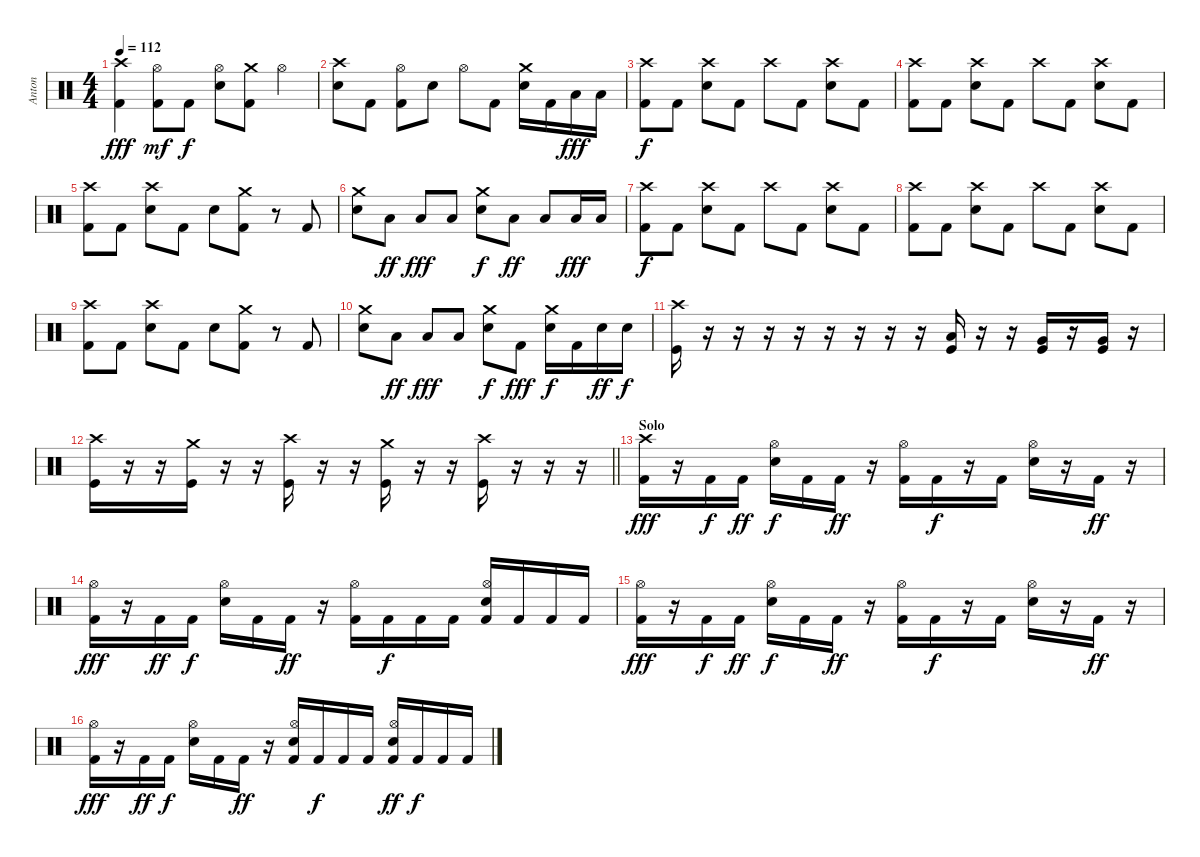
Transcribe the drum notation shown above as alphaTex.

\track ("Anton" "Anton") {instrument percussion}
\staff
\articulation defaults
\ts (4 4)
\tempo 112
\clef neutral
\ks c
("Crash high (hit)" "Kick (hit) 2").4{dy fff} ("Hi-Hat (open)" "Kick (hit) 2").8{dy mf} "Kick (hit) 2".8{dy f} ("Hi-Hat (open)" "Electric Snare (hit)").8 ("Crash medium (hit)" "Kick (hit) 2").8 "Hi-Hat (open)".4 |
("Crash high (hit)" "Electric Snare (hit)").8 "Kick (hit) 2".8 ("Hi-Hat (open)" "Kick (hit) 2").8 "Electric Snare (hit)".8 "Hi-Hat (open)".8 "Kick (hit) 2".8 ("Crash medium (hit)" "Electric Snare (hit)").16 "Kick (hit) 2".16 "Low Tom (hit)".16{dy fff} "Low Tom (hit)".16 |
("Crash high (hit)" "Kick (hit) 2").8{dy f} "Kick (hit) 2".8 ("Crash high (hit)" "Electric Snare (hit)").8 "Kick (hit) 2".8 "Crash high (hit)".8 "Kick (hit) 2".8 ("Crash high (hit)" "Electric Snare (hit)").8 "Kick (hit) 2".8 |
("Crash high (hit)" "Kick (hit) 2").8 "Kick (hit) 2".8 ("Crash high (hit)" "Electric Snare (hit)").8 "Kick (hit) 2".8 "Crash high (hit)".8 "Kick (hit) 2".8 ("Crash high (hit)" "Electric Snare (hit)").8 "Kick (hit) 2".8 |
("Crash high (hit)" "Kick (hit) 2").8 "Kick (hit) 2".8 ("Crash high (hit)" "Electric Snare (hit)").8 "Kick (hit) 2".8 "Electric Snare (hit)".8 ("Crash medium (hit)" "Kick (hit) 2").8 r.8 "Kick (hit) 2".8 |
("Crash medium (hit)" "Electric Snare (hit)").8 "Low Tom (hit)".8{dy ff} "Low Tom (hit)".8{dy fff} "Low Floor Tom (hit)".8 ("Crash medium (hit)" "Electric Snare (hit)").8{dy f} "Low Tom (hit)".8{dy ff} "Low Floor Tom (hit)".8 "Low Floor Tom (hit)".16{dy fff} "Low Floor Tom (hit)".16 |
("Crash high (hit)" "Kick (hit) 2").8{dy f} "Kick (hit) 2".8 ("Crash high (hit)" "Electric Snare (hit)").8 "Kick (hit) 2".8 "Crash high (hit)".8 "Kick (hit) 2".8 ("Crash high (hit)" "Electric Snare (hit)").8 "Kick (hit) 2".8 |
("Crash high (hit)" "Kick (hit) 2").8 "Kick (hit) 2".8 ("Crash high (hit)" "Electric Snare (hit)").8 "Kick (hit) 2".8 "Crash high (hit)".8 "Kick (hit) 2".8 ("Crash high (hit)" "Electric Snare (hit)").8 "Kick (hit) 2".8 |
("Crash high (hit)" "Kick (hit) 2").8 "Kick (hit) 2".8 ("Crash high (hit)" "Electric Snare (hit)").8 "Kick (hit) 2".8 "Electric Snare (hit)".8 ("Crash medium (hit)" "Kick (hit) 2").8 r.8 "Kick (hit) 2".8 |
("Crash medium (hit)" "Electric Snare (hit)").8 "Low Tom (hit)".8{dy ff} "Low Tom (hit)".8{dy fff} "Low Floor Tom (hit)".8 ("Crash medium (hit)" "Electric Snare (hit)").8{dy f} "Kick (hit) 2".8{dy fff} ("Crash medium (hit)" "Electric Snare (hit)").16{dy f} "Kick (hit) 2".16 "Electric Snare (hit)".16{dy ff} "Electric Snare (hit)".16{dy f} |
("Kick (hit)" "Crash high (hit)").16 r.16 r.16 r.16 r.16 r.16 r.16 r.16 r.16 ("Low Tom (hit)" "Kick (hit)").16 r.16 r.16 ("Very Low Tom (hit)" "Kick (hit)").16 r.16 ("Very Low Tom (hit)" "Kick (hit)").16 r.16 |
\barLineRight lightlight
("Kick (hit)" "Crash high (hit)").16 r.16 r.16 ("Kick (hit)" "Crash medium (hit)").16 r.16 r.16 ("Kick (hit)" "Crash high (hit)").16 r.16 r.16 ("Kick (hit)" "Crash medium (hit)").16 r.16 r.16 ("Kick (hit)" "Crash high (hit)").16 r.16 r.16 r.16 |
\section ("" "Solo")
("Crash high (hit)" "Kick (hit) 2").16{dy fff} r.16 "Kick (hit) 2".16{dy f} "Kick (hit) 2".16{dy ff} ("Hi-Hat (open)" "Electric Snare (hit)").16{dy f} "Kick (hit) 2".16 "Kick (hit) 2".16{dy ff} r.16 ("Hi-Hat (open)" "Kick (hit) 2").16 "Kick (hit) 2".16{dy f} r.16 "Kick (hit) 2".16 ("Hi-Hat (open)" "Electric Snare (hit)").16 r.16 "Kick (hit) 2".16{dy ff} r.16 |
("Hi-Hat (open)" "Kick (hit) 2").16{dy fff} r.16 "Kick (hit) 2".16{dy ff} "Kick (hit) 2".16{dy f} ("Hi-Hat (open)" "Electric Snare (hit)").16 "Kick (hit) 2".16 "Kick (hit) 2".16{dy ff} r.16 ("Hi-Hat (open)" "Kick (hit) 2").16 "Kick (hit) 2".16{dy f} "Kick (hit) 2".16 "Kick (hit) 2".16 ("Hi-Hat (open)" "Electric Snare (hit)" "Kick (hit) 2").16 "Kick (hit) 2".16 "Kick (hit) 2".16 "Kick (hit) 2".16 |
("Hi-Hat (open)" "Kick (hit) 2").16{dy fff} r.16 "Kick (hit) 2".16{dy f} "Kick (hit) 2".16{dy ff} ("Hi-Hat (open)" "Electric Snare (hit)").16{dy f} "Kick (hit) 2".16 "Kick (hit) 2".16{dy ff} r.16 ("Hi-Hat (open)" "Kick (hit) 2").16 "Kick (hit) 2".16{dy f} r.16 "Kick (hit) 2".16 ("Hi-Hat (open)" "Electric Snare (hit)").16 r.16 "Kick (hit) 2".16{dy ff} r.16 |
("Hi-Hat (open)" "Kick (hit) 2").16{dy fff} r.16 "Kick (hit) 2".16{dy ff} "Kick (hit) 2".16{dy f} ("Hi-Hat (open)" "Electric Snare (hit)").16 "Kick (hit) 2".16 "Kick (hit) 2".16{dy ff} r.16 ("Hi-Hat (open)" "Electric Snare (hit)" "Kick (hit) 2").16 "Kick (hit) 2".16{dy f} "Kick (hit) 2".16 "Kick (hit) 2".16 ("Hi-Hat (open)" "Electric Snare (hit)" "Kick (hit) 2").16{dy ff} "Kick (hit) 2".16{dy f} "Kick (hit) 2".16 "Kick (hit) 2".16
